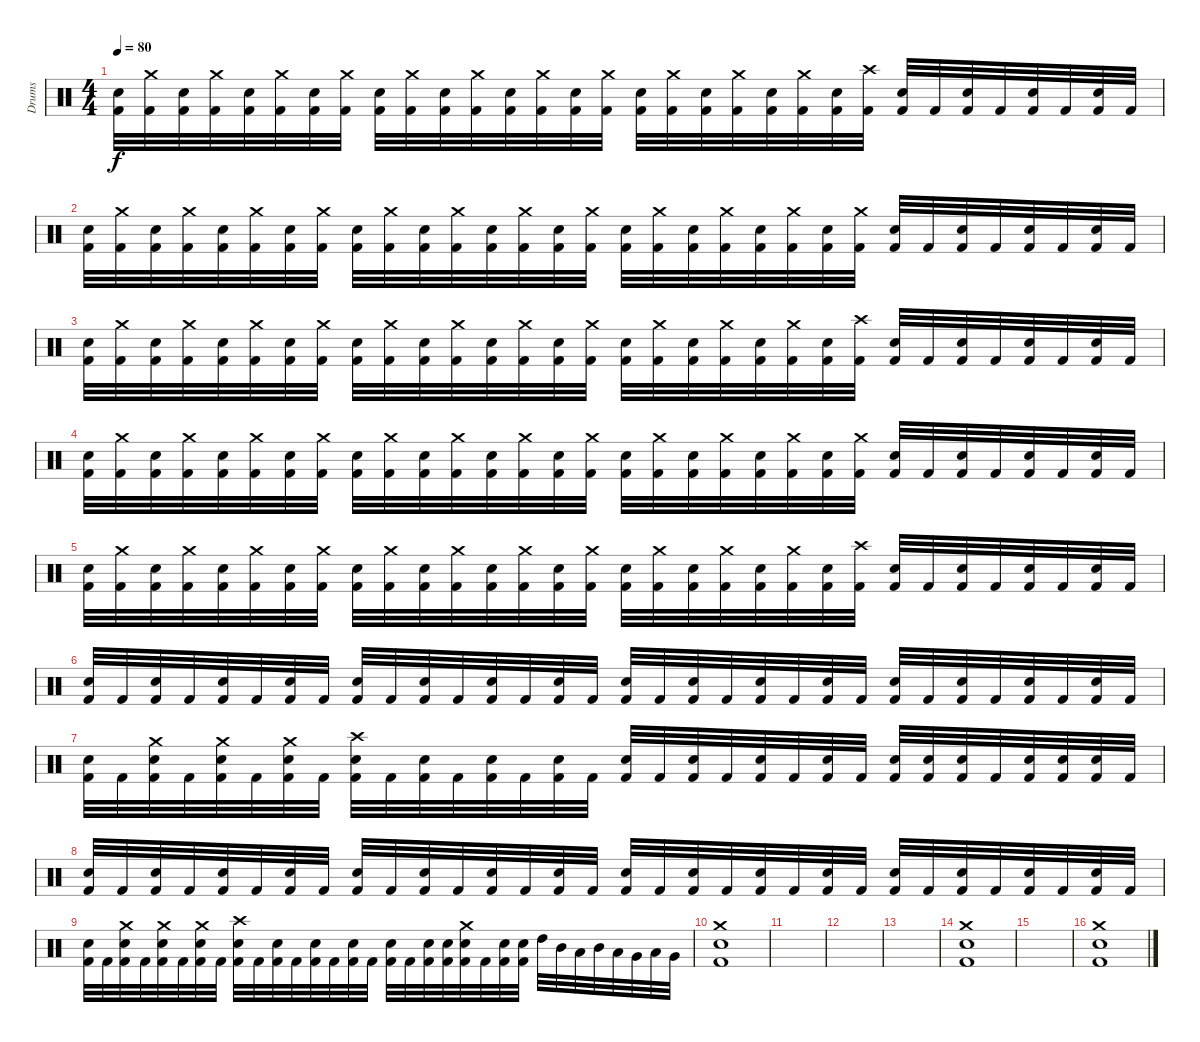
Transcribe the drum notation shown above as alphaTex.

\track ("Drums" "Drums") {instrument percussion}
\staff {score}
\articulation defaults
\ts (4 4)
\tempo 80
\clef neutral
\ks c
("Kick (hit) 2" "Snare (hit) 2").32{dy f} ("Kick (hit) 2" "Crash medium (hit)").32 ("Kick (hit) 2" "Snare (hit) 2").32 ("Kick (hit) 2" "Crash medium (hit)").32 ("Kick (hit) 2" "Snare (hit) 2").32 ("Kick (hit) 2" "Crash medium (hit)").32 ("Kick (hit) 2" "Snare (hit) 2").32 ("Kick (hit) 2" "Crash medium (hit)").32 ("Kick (hit) 2" "Snare (hit) 2").32 ("Kick (hit) 2" "Crash medium (hit)").32 ("Kick (hit) 2" "Snare (hit) 2").32 ("Kick (hit) 2" "Crash medium (hit)").32 ("Kick (hit) 2" "Snare (hit) 2").32 ("Kick (hit) 2" "Crash medium (hit)").32 ("Kick (hit) 2" "Snare (hit) 2").32 ("Kick (hit) 2" "Crash medium (hit)").32 ("Kick (hit) 2" "Snare (hit) 2").32 ("Kick (hit) 2" "Crash medium (hit)").32 ("Kick (hit) 2" "Snare (hit) 2").32 ("Kick (hit) 2" "Crash medium (hit)").32 ("Kick (hit) 2" "Snare (hit) 2").32 ("Kick (hit) 2" "Crash medium (hit)").32 ("Kick (hit) 2" "Snare (hit) 2").32 ("Kick (hit) 2" "Crash high (hit)").32 ("Kick (hit) 2" "Snare (hit) 2").32 "Kick (hit) 2".32 ("Kick (hit) 2" "Snare (hit) 2").32 "Kick (hit) 2".32 ("Kick (hit) 2" "Snare (hit) 2").32 "Kick (hit) 2".32 ("Kick (hit) 2" "Snare (hit) 2").32 "Kick (hit) 2".32 |
("Kick (hit) 2" "Snare (hit) 2").32 ("Kick (hit) 2" "Crash medium (hit)").32 ("Kick (hit) 2" "Snare (hit) 2").32 ("Kick (hit) 2" "Crash medium (hit)").32 ("Kick (hit) 2" "Snare (hit) 2").32 ("Kick (hit) 2" "Crash medium (hit)").32 ("Kick (hit) 2" "Snare (hit) 2").32 ("Kick (hit) 2" "Crash medium (hit)").32 ("Kick (hit) 2" "Snare (hit) 2").32 ("Kick (hit) 2" "Crash medium (hit)").32 ("Kick (hit) 2" "Snare (hit) 2").32 ("Kick (hit) 2" "Crash medium (hit)").32 ("Kick (hit) 2" "Snare (hit) 2").32 ("Kick (hit) 2" "Crash medium (hit)").32 ("Kick (hit) 2" "Snare (hit) 2").32 ("Kick (hit) 2" "Crash medium (hit)").32 ("Kick (hit) 2" "Snare (hit) 2").32 ("Kick (hit) 2" "Crash medium (hit)").32 ("Kick (hit) 2" "Snare (hit) 2").32 ("Kick (hit) 2" "Crash medium (hit)").32 ("Kick (hit) 2" "Snare (hit) 2").32 ("Kick (hit) 2" "Crash medium (hit)").32 ("Kick (hit) 2" "Snare (hit) 2").32 ("Kick (hit) 2" "Crash medium (hit)").32 ("Kick (hit) 2" "Snare (hit) 2").32 "Kick (hit) 2".32 ("Kick (hit) 2" "Snare (hit) 2").32 "Kick (hit) 2".32 ("Kick (hit) 2" "Snare (hit) 2").32 "Kick (hit) 2".32 ("Kick (hit) 2" "Snare (hit) 2").32 "Kick (hit) 2".32 |
("Kick (hit) 2" "Snare (hit) 2").32 ("Kick (hit) 2" "Crash medium (hit)").32 ("Kick (hit) 2" "Snare (hit) 2").32 ("Kick (hit) 2" "Crash medium (hit)").32 ("Kick (hit) 2" "Snare (hit) 2").32 ("Kick (hit) 2" "Crash medium (hit)").32 ("Kick (hit) 2" "Snare (hit) 2").32 ("Kick (hit) 2" "Crash medium (hit)").32 ("Kick (hit) 2" "Snare (hit) 2").32 ("Kick (hit) 2" "Crash medium (hit)").32 ("Kick (hit) 2" "Snare (hit) 2").32 ("Kick (hit) 2" "Crash medium (hit)").32 ("Kick (hit) 2" "Snare (hit) 2").32 ("Kick (hit) 2" "Crash medium (hit)").32 ("Kick (hit) 2" "Snare (hit) 2").32 ("Kick (hit) 2" "Crash medium (hit)").32 ("Kick (hit) 2" "Snare (hit) 2").32 ("Kick (hit) 2" "Crash medium (hit)").32 ("Kick (hit) 2" "Snare (hit) 2").32 ("Kick (hit) 2" "Crash medium (hit)").32 ("Kick (hit) 2" "Snare (hit) 2").32 ("Kick (hit) 2" "Crash medium (hit)").32 ("Kick (hit) 2" "Snare (hit) 2").32 ("Kick (hit) 2" "Crash high (hit)").32 ("Kick (hit) 2" "Snare (hit) 2").32 "Kick (hit) 2".32 ("Kick (hit) 2" "Snare (hit) 2").32 "Kick (hit) 2".32 ("Kick (hit) 2" "Snare (hit) 2").32 "Kick (hit) 2".32 ("Kick (hit) 2" "Snare (hit) 2").32 "Kick (hit) 2".32 |
("Kick (hit) 2" "Snare (hit) 2").32 ("Kick (hit) 2" "Crash medium (hit)").32 ("Kick (hit) 2" "Snare (hit) 2").32 ("Kick (hit) 2" "Crash medium (hit)").32 ("Kick (hit) 2" "Snare (hit) 2").32 ("Kick (hit) 2" "Crash medium (hit)").32 ("Kick (hit) 2" "Snare (hit) 2").32 ("Kick (hit) 2" "Crash medium (hit)").32 ("Kick (hit) 2" "Snare (hit) 2").32 ("Kick (hit) 2" "Crash medium (hit)").32 ("Kick (hit) 2" "Snare (hit) 2").32 ("Kick (hit) 2" "Crash medium (hit)").32 ("Kick (hit) 2" "Snare (hit) 2").32 ("Kick (hit) 2" "Crash medium (hit)").32 ("Kick (hit) 2" "Snare (hit) 2").32 ("Kick (hit) 2" "Crash medium (hit)").32 ("Kick (hit) 2" "Snare (hit) 2").32 ("Kick (hit) 2" "Crash medium (hit)").32 ("Kick (hit) 2" "Snare (hit) 2").32 ("Kick (hit) 2" "Crash medium (hit)").32 ("Kick (hit) 2" "Snare (hit) 2").32 ("Kick (hit) 2" "Crash medium (hit)").32 ("Kick (hit) 2" "Snare (hit) 2").32 ("Kick (hit) 2" "Crash medium (hit)").32 ("Kick (hit) 2" "Snare (hit) 2").32 "Kick (hit) 2".32 ("Kick (hit) 2" "Snare (hit) 2").32 "Kick (hit) 2".32 ("Kick (hit) 2" "Snare (hit) 2").32 "Kick (hit) 2".32 ("Kick (hit) 2" "Snare (hit) 2").32 "Kick (hit) 2".32 |
("Kick (hit) 2" "Snare (hit) 2").32 ("Kick (hit) 2" "Crash medium (hit)").32 ("Kick (hit) 2" "Snare (hit) 2").32 ("Kick (hit) 2" "Crash medium (hit)").32 ("Kick (hit) 2" "Snare (hit) 2").32 ("Kick (hit) 2" "Crash medium (hit)").32 ("Kick (hit) 2" "Snare (hit) 2").32 ("Kick (hit) 2" "Crash medium (hit)").32 ("Kick (hit) 2" "Snare (hit) 2").32 ("Kick (hit) 2" "Crash medium (hit)").32 ("Kick (hit) 2" "Snare (hit) 2").32 ("Kick (hit) 2" "Crash medium (hit)").32 ("Kick (hit) 2" "Snare (hit) 2").32 ("Kick (hit) 2" "Crash medium (hit)").32 ("Kick (hit) 2" "Snare (hit) 2").32 ("Kick (hit) 2" "Crash medium (hit)").32 ("Kick (hit) 2" "Snare (hit) 2").32 ("Kick (hit) 2" "Crash medium (hit)").32 ("Kick (hit) 2" "Snare (hit) 2").32 ("Kick (hit) 2" "Crash medium (hit)").32 ("Kick (hit) 2" "Snare (hit) 2").32 ("Kick (hit) 2" "Crash medium (hit)").32 ("Kick (hit) 2" "Snare (hit) 2").32 ("Kick (hit) 2" "Crash high (hit)").32 ("Kick (hit) 2" "Snare (hit) 2").32 "Kick (hit) 2".32 ("Kick (hit) 2" "Snare (hit) 2").32 "Kick (hit) 2".32 ("Kick (hit) 2" "Snare (hit) 2").32 "Kick (hit) 2".32 ("Kick (hit) 2" "Snare (hit) 2").32 "Kick (hit) 2".32 |
("Kick (hit) 2" "Snare (hit) 2").32 "Kick (hit) 2".32 ("Kick (hit) 2" "Snare (hit) 2").32 "Kick (hit) 2".32 ("Kick (hit) 2" "Snare (hit) 2").32 "Kick (hit) 2".32 ("Kick (hit) 2" "Snare (hit) 2").32 "Kick (hit) 2".32 ("Kick (hit) 2" "Snare (hit) 2").32 "Kick (hit) 2".32 ("Kick (hit) 2" "Snare (hit) 2").32 "Kick (hit) 2".32 ("Kick (hit) 2" "Snare (hit) 2").32 "Kick (hit) 2".32 ("Kick (hit) 2" "Snare (hit) 2").32 "Kick (hit) 2".32 ("Kick (hit) 2" "Snare (hit) 2").32 "Kick (hit) 2".32 ("Kick (hit) 2" "Snare (hit) 2").32 "Kick (hit) 2".32 ("Kick (hit) 2" "Snare (hit) 2").32 "Kick (hit) 2".32 ("Kick (hit) 2" "Snare (hit) 2").32 "Kick (hit) 2".32 ("Kick (hit) 2" "Snare (hit) 2").32 "Kick (hit) 2".32 ("Kick (hit) 2" "Snare (hit) 2").32 "Kick (hit) 2".32 ("Kick (hit) 2" "Snare (hit) 2").32 "Kick (hit) 2".32 ("Kick (hit) 2" "Snare (hit) 2").32 "Kick (hit) 2".32 |
("Kick (hit) 2" "Snare (hit) 2").32 "Kick (hit) 2".32 ("Kick (hit) 2" "Snare (hit) 2" "Crash medium (hit)").32 "Kick (hit) 2".32 ("Kick (hit) 2" "Snare (hit) 2" "Crash medium (hit)").32 "Kick (hit) 2".32 ("Kick (hit) 2" "Snare (hit) 2" "Crash medium (hit)").32 "Kick (hit) 2".32 ("Kick (hit) 2" "Snare (hit) 2" "Crash high (hit)").32 "Kick (hit) 2".32 ("Kick (hit) 2" "Snare (hit) 2").32 "Kick (hit) 2".32 ("Kick (hit) 2" "Snare (hit) 2").32 "Kick (hit) 2".32 ("Kick (hit) 2" "Snare (hit) 2").32 "Kick (hit) 2".32 ("Kick (hit) 2" "Snare (hit) 2").32 "Kick (hit) 2".32 ("Kick (hit) 2" "Snare (hit) 2").32 "Kick (hit) 2".32 ("Kick (hit) 2" "Snare (hit) 2").32 "Kick (hit) 2".32 ("Kick (hit) 2" "Snare (hit) 2").32 "Kick (hit) 2".32 ("Kick (hit) 2" "Snare (hit) 2").32 ("Kick (hit) 2" "Snare (hit) 2").32 ("Kick (hit) 2" "Snare (hit) 2").32 "Kick (hit) 2".32 ("Kick (hit) 2" "Snare (hit) 2").32 ("Kick (hit) 2" "Snare (hit) 2").32 ("Kick (hit) 2" "Snare (hit) 2").32 "Kick (hit) 2".32 |
("Kick (hit) 2" "Snare (hit) 2").32 "Kick (hit) 2".32 ("Kick (hit) 2" "Snare (hit) 2").32 "Kick (hit) 2".32 ("Kick (hit) 2" "Snare (hit) 2").32 "Kick (hit) 2".32 ("Kick (hit) 2" "Snare (hit) 2").32 "Kick (hit) 2".32 ("Kick (hit) 2" "Snare (hit) 2").32 "Kick (hit) 2".32 ("Kick (hit) 2" "Snare (hit) 2").32 "Kick (hit) 2".32 ("Kick (hit) 2" "Snare (hit) 2").32 "Kick (hit) 2".32 ("Kick (hit) 2" "Snare (hit) 2").32 "Kick (hit) 2".32 ("Kick (hit) 2" "Snare (hit) 2").32 "Kick (hit) 2".32 ("Kick (hit) 2" "Snare (hit) 2").32 "Kick (hit) 2".32 ("Kick (hit) 2" "Snare (hit) 2").32 "Kick (hit) 2".32 ("Kick (hit) 2" "Snare (hit) 2").32 "Kick (hit) 2".32 ("Kick (hit) 2" "Snare (hit) 2").32 "Kick (hit) 2".32 ("Kick (hit) 2" "Snare (hit) 2").32 "Kick (hit) 2".32 ("Kick (hit) 2" "Snare (hit) 2").32 "Kick (hit) 2".32 ("Kick (hit) 2" "Snare (hit) 2").32 "Kick (hit) 2".32 |
("Kick (hit) 2" "Snare (hit) 2").32 "Kick (hit) 2".32 ("Kick (hit) 2" "Snare (hit) 2" "Crash medium (hit)").32 "Kick (hit) 2".32 ("Kick (hit) 2" "Snare (hit) 2" "Crash medium (hit)").32 "Kick (hit) 2".32 ("Kick (hit) 2" "Snare (hit) 2" "Crash medium (hit)").32 "Kick (hit) 2".32 ("Kick (hit) 2" "Snare (hit) 2" "Crash high (hit)").32 "Kick (hit) 2".32 ("Kick (hit) 2" "Snare (hit) 2").32 "Kick (hit) 2".32 ("Kick (hit) 2" "Snare (hit) 2").32 "Kick (hit) 2".32 ("Kick (hit) 2" "Snare (hit) 2").32 "Kick (hit) 2".32 ("Kick (hit) 2" "Snare (hit) 2").32 "Kick (hit) 2".32 ("Kick (hit) 2" "Snare (hit) 2").32 ("Kick (hit) 2" "Snare (hit) 2").32 ("Kick (hit) 2" "Snare (hit) 2" "Crash medium (hit)").32 "Kick (hit) 2".32 ("Kick (hit) 2" "Snare (hit) 2").32 ("Kick (hit) 2" "Snare (hit) 2").32 "High Tom (hit)".32 "Mid Tom (hit)".32 "Low Tom (hit)".32 "Mid Tom (hit)".32 "Low Tom (hit)".32 "Very Low Tom (hit)".32 "Low Tom (hit)".32 "Very Low Tom (hit)".32 |
("Kick (hit) 2" "Snare (hit) 2" "Crash medium (hit)").1 |
|
|
|
("Kick (hit) 2" "Snare (hit) 2" "Crash medium (hit)").1 |
|
("Kick (hit) 2" "Snare (hit) 2" "Crash medium (hit)").1
